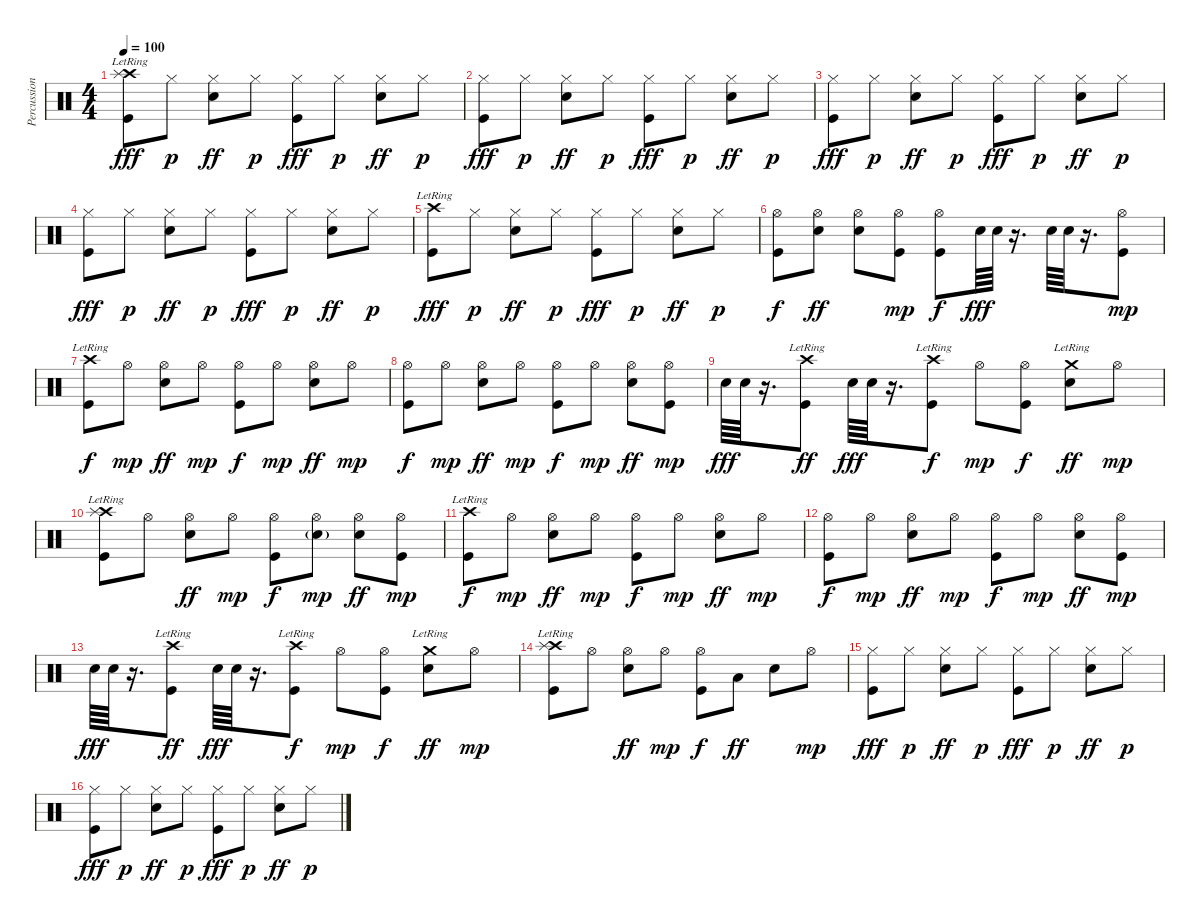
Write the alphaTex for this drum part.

\track ("Percussion" "Percussion") {instrument percussion}
\staff {score}
\articulation defaults
\ts (4 4)
\tempo 100
\clef neutral
\ks c
("Crash high (hit)"{lr} "Splash (hit)"{lr} "Kick (hit)").8{dy fff} "Hi-Hat (closed)".8{dy p} ("Hi-Hat (closed)" "Electric Snare (hit)").8{dy ff} "Hi-Hat (closed)".8{dy p} ("Hi-Hat (closed)" "Kick (hit)").8{dy fff} "Hi-Hat (closed)".8{dy p} ("Hi-Hat (closed)" "Electric Snare (hit)").8{dy ff} "Hi-Hat (closed)".8{dy p} |
("Hi-Hat (closed)" "Kick (hit)").8{dy fff} "Hi-Hat (closed)".8{dy p} ("Hi-Hat (closed)" "Electric Snare (hit)").8{dy ff} "Hi-Hat (closed)".8{dy p} ("Hi-Hat (closed)" "Kick (hit)").8{dy fff} "Hi-Hat (closed)".8{dy p} ("Hi-Hat (closed)" "Electric Snare (hit)").8{dy ff} "Hi-Hat (closed)".8{dy p} |
("Hi-Hat (closed)" "Kick (hit)").8{dy fff} "Hi-Hat (closed)".8{dy p} ("Hi-Hat (closed)" "Electric Snare (hit)").8{dy ff} "Hi-Hat (closed)".8{dy p} ("Hi-Hat (closed)" "Kick (hit)").8{dy fff} "Hi-Hat (closed)".8{dy p} ("Hi-Hat (closed)" "Electric Snare (hit)").8{dy ff} "Hi-Hat (closed)".8{dy p} |
("Hi-Hat (closed)" "Kick (hit)").8{dy fff} "Hi-Hat (closed)".8{dy p} ("Hi-Hat (closed)" "Electric Snare (hit)").8{dy ff} "Hi-Hat (closed)".8{dy p} ("Hi-Hat (closed)" "Kick (hit)").8{dy fff} "Hi-Hat (closed)".8{dy p} ("Hi-Hat (closed)" "Electric Snare (hit)").8{dy ff} "Hi-Hat (closed)".8{dy p} |
("Crash high (hit)"{lr} "Kick (hit)").8{dy fff} "Hi-Hat (closed)".8{dy p} ("Hi-Hat (closed)" "Electric Snare (hit)").8{dy ff} "Hi-Hat (closed)".8{dy p} ("Hi-Hat (closed)" "Kick (hit)").8{dy fff} "Hi-Hat (closed)".8{dy p} ("Hi-Hat (closed)" "Electric Snare (hit)").8{dy ff} "Hi-Hat (closed)".8{dy p} |
("Hi-Hat (open)" "Kick (hit)").8{dy f} ("Hi-Hat (open)" "Electric Snare (hit)").8{dy ff} ("Hi-Hat (open)" "Electric Snare (hit)").8 ("Hi-Hat (open)" "Kick (hit)").8{dy mp} ("Hi-Hat (open)" "Kick (hit)").8{dy f} "Electric Snare (hit)".64{dy fff} "Electric Snare (hit)".64 r.16{d} "Electric Snare (hit)".64 "Electric Snare (hit)".64 r.16{d} ("Hi-Hat (open)" "Kick (hit)").8{dy mp} |
("Crash high (hit)"{lr} "Kick (hit)").8{dy f} "Hi-Hat (open)".8{dy mp} ("Hi-Hat (open)" "Electric Snare (hit)").8{dy ff} "Hi-Hat (open)".8{dy mp} ("Hi-Hat (open)" "Kick (hit)").8{dy f} "Hi-Hat (open)".8{dy mp} ("Hi-Hat (open)" "Electric Snare (hit)").8{dy ff} "Hi-Hat (open)".8{dy mp} |
("Hi-Hat (open)" "Kick (hit)").8{dy f} "Hi-Hat (open)".8{dy mp} ("Hi-Hat (open)" "Electric Snare (hit)").8{dy ff} "Hi-Hat (open)".8{dy mp} ("Hi-Hat (open)" "Kick (hit)").8{dy f} "Hi-Hat (open)".8{dy mp} ("Hi-Hat (open)" "Electric Snare (hit)").8{dy ff} ("Hi-Hat (open)" "Kick (hit)").8{dy mp} |
"Electric Snare (hit)".64{dy fff} "Electric Snare (hit)".64 r.16{d} ("Crash high (hit)"{lr} "Kick (hit)").8{dy ff} "Electric Snare (hit)".64{dy fff} "Electric Snare (hit)".64 r.16{d} ("Crash high (hit)"{lr} "Kick (hit)").8{dy f} "Hi-Hat (open)".8{dy mp} ("Hi-Hat (open)" "Kick (hit)").8{dy f} ("Crash medium (hit)"{lr} "Electric Snare (hit)").8{dy ff} "Hi-Hat (open)".8{dy mp} |
("Crash high (hit)"{lr} "Splash (hit)"{lr} "Kick (hit)").8 "Hi-Hat (open)".8 ("Hi-Hat (open)" "Electric Snare (hit)").8{dy ff} "Hi-Hat (open)".8{dy mp} ("Hi-Hat (open)" "Kick (hit)").8{dy f} ("Hi-Hat (open)" "Electric Snare (hit)"{g}).8{dy mp} ("Hi-Hat (open)" "Electric Snare (hit)").8{dy ff} ("Hi-Hat (open)" "Kick (hit)").8{dy mp} |
("Crash high (hit)"{lr} "Kick (hit)").8{dy f} "Hi-Hat (open)".8{dy mp} ("Hi-Hat (open)" "Electric Snare (hit)").8{dy ff} "Hi-Hat (open)".8{dy mp} ("Hi-Hat (open)" "Kick (hit)").8{dy f} "Hi-Hat (open)".8{dy mp} ("Hi-Hat (open)" "Electric Snare (hit)").8{dy ff} "Hi-Hat (open)".8{dy mp} |
("Hi-Hat (open)" "Kick (hit)").8{dy f} "Hi-Hat (open)".8{dy mp} ("Hi-Hat (open)" "Electric Snare (hit)").8{dy ff} "Hi-Hat (open)".8{dy mp} ("Hi-Hat (open)" "Kick (hit)").8{dy f} "Hi-Hat (open)".8{dy mp} ("Hi-Hat (open)" "Electric Snare (hit)").8{dy ff} ("Hi-Hat (open)" "Kick (hit)").8{dy mp} |
"Electric Snare (hit)".64{dy fff} "Electric Snare (hit)".64 r.16{d} ("Crash high (hit)"{lr} "Kick (hit)").8{dy ff} "Electric Snare (hit)".64{dy fff} "Electric Snare (hit)".64 r.16{d} ("Crash high (hit)"{lr} "Kick (hit)").8{dy f} "Hi-Hat (open)".8{dy mp} ("Hi-Hat (open)" "Kick (hit)").8{dy f} ("Crash medium (hit)"{lr} "Electric Snare (hit)").8{dy ff} "Hi-Hat (open)".8{dy mp} |
("Crash high (hit)"{lr} "Splash (hit)"{lr} "Kick (hit)").8 "Hi-Hat (open)".8 ("Hi-Hat (open)" "Electric Snare (hit)").8{dy ff} "Hi-Hat (open)".8{dy mp} ("Hi-Hat (open)" "Kick (hit)").8{dy f} "Low Tom (hit)".8{dy ff} "Electric Snare (hit)".8 "Hi-Hat (open)".8{dy mp} |
("Hi-Hat (closed)" "Kick (hit)").8{dy fff} "Hi-Hat (closed)".8{dy p} ("Hi-Hat (closed)" "Electric Snare (hit)").8{dy ff} "Hi-Hat (closed)".8{dy p} ("Hi-Hat (closed)" "Kick (hit)").8{dy fff} "Hi-Hat (closed)".8{dy p} ("Hi-Hat (closed)" "Electric Snare (hit)").8{dy ff} "Hi-Hat (closed)".8{dy p} |
("Hi-Hat (closed)" "Kick (hit)").8{dy fff} "Hi-Hat (closed)".8{dy p} ("Hi-Hat (closed)" "Electric Snare (hit)").8{dy ff} "Hi-Hat (closed)".8{dy p} ("Hi-Hat (closed)" "Kick (hit)").8{dy fff} "Hi-Hat (closed)".8{dy p} ("Hi-Hat (closed)" "Electric Snare (hit)").8{dy ff} "Hi-Hat (closed)".8{dy p}
